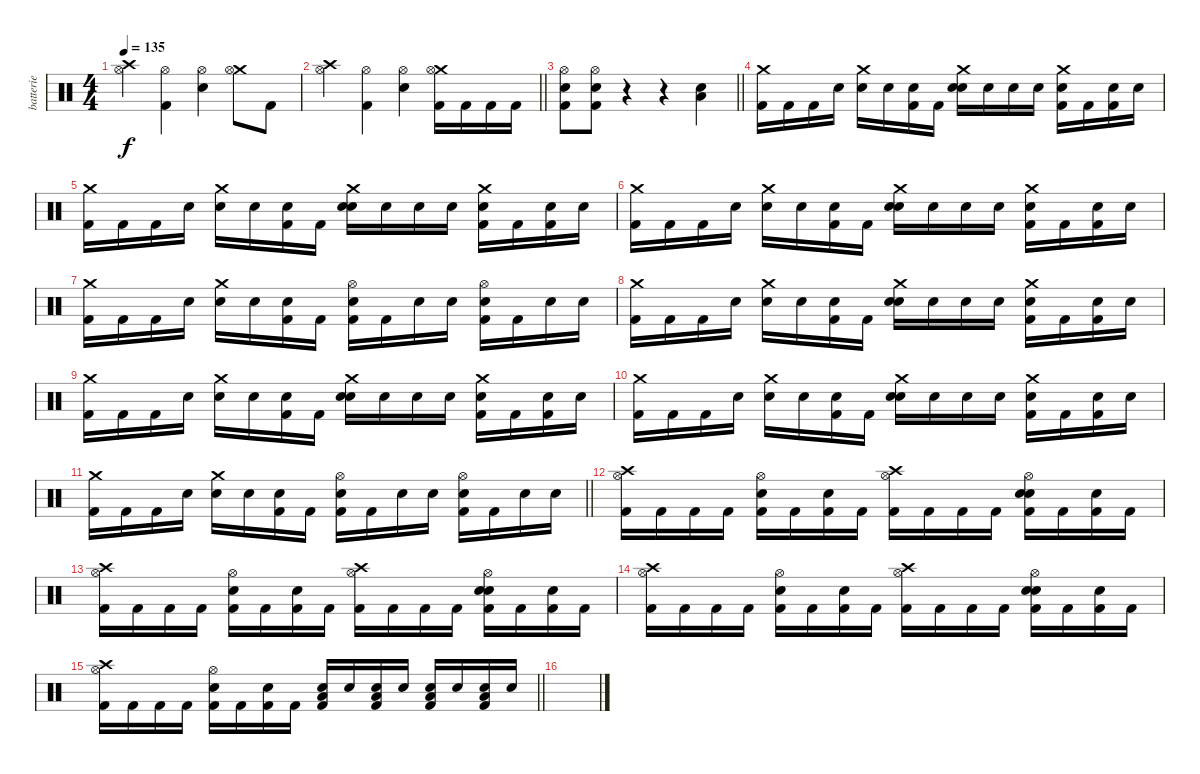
\track ("batterie" "batterie") {instrument percussion}
\staff {score}
\articulation defaults
\ts (4 4)
\tempo 135
\clef neutral
\ks c
("Crash high (hit)" "Hi-Hat (open)").4{dy f} ("Hi-Hat (open)" "Kick (hit) 2").4 ("Snare (hit) 2" "Hi-Hat (open)").4 ("Crash medium (hit)" "Hi-Hat (open)").8 "Kick (hit) 2".8 |
\barLineRight lightlight
("Crash high (hit)" "Hi-Hat (open)").4 ("Hi-Hat (open)" "Kick (hit) 2").4 ("Snare (hit) 2" "Hi-Hat (open)").4 ("Crash medium (hit)" "Hi-Hat (open)" "Kick (hit) 2").16 "Kick (hit) 2".16 "Kick (hit) 2".16 "Kick (hit) 2".16 |
\section ("" "")
\barLineRight lightlight
("Electric Snare (hit)" "Hi-Hat (open)" "Kick (hit) 2").8 ("Electric Snare (hit)" "Hi-Hat (open)" "Kick (hit) 2").8 r.4 r.4 ("Electric Snare (hit)" "Low Floor Tom (hit)").4 |
("Crash medium (hit)" "Kick (hit) 2").16 "Kick (hit) 2".16 "Kick (hit) 2".16 "Snare (hit)".16 ("Crash medium (hit)" "Snare (hit)").16 "Snare (hit)".16 ("Snare (hit)" "Kick (hit) 2").16 "Kick (hit) 2".16 ("Snare (hit) 2" "Crash medium (hit)" "Snare (hit)").16 "Snare (hit)".16 "Snare (hit)".16 "Snare (hit)".16 ("Snare (hit)" "Crash medium (hit)" "Kick (hit) 2").16 "Kick (hit) 2".16 ("Snare (hit)" "Kick (hit) 2").16 "Snare (hit)".16 |
("Crash medium (hit)" "Kick (hit) 2").16 "Kick (hit) 2".16 "Kick (hit) 2".16 "Snare (hit)".16 ("Crash medium (hit)" "Snare (hit)").16 "Snare (hit)".16 ("Snare (hit)" "Kick (hit) 2").16 "Kick (hit) 2".16 ("Snare (hit) 2" "Crash medium (hit)" "Snare (hit)").16 "Snare (hit)".16 "Snare (hit)".16 "Snare (hit)".16 ("Snare (hit)" "Crash medium (hit)" "Kick (hit) 2").16 "Kick (hit) 2".16 ("Snare (hit)" "Kick (hit) 2").16 "Snare (hit)".16 |
("Crash medium (hit)" "Kick (hit) 2").16 "Kick (hit) 2".16 "Kick (hit) 2".16 "Snare (hit)".16 ("Crash medium (hit)" "Snare (hit)").16 "Snare (hit)".16 ("Snare (hit)" "Kick (hit) 2").16 "Kick (hit) 2".16 ("Snare (hit) 2" "Crash medium (hit)" "Snare (hit)").16 "Snare (hit)".16 "Snare (hit)".16 "Snare (hit)".16 ("Snare (hit)" "Crash medium (hit)" "Kick (hit) 2").16 "Kick (hit) 2".16 ("Snare (hit)" "Kick (hit) 2").16 "Snare (hit)".16 |
("Crash medium (hit)" "Kick (hit) 2").16 "Kick (hit) 2".16 "Kick (hit) 2".16 "Snare (hit)".16 ("Crash medium (hit)" "Snare (hit)").16 "Snare (hit)".16 ("Snare (hit)" "Kick (hit) 2").16 "Kick (hit) 2".16 ("Snare (hit)" "Hi-Hat (open)" "Kick (hit) 2").16 "Kick (hit) 2".16 "Snare (hit)".16 "Snare (hit)".16 ("Snare (hit) 2" "Hi-Hat (open)" "Kick (hit) 2").16 "Kick (hit) 2".16 "Snare (hit)".16 "Snare (hit)".16 |
("Crash medium (hit)" "Kick (hit) 2").16 "Kick (hit) 2".16 "Kick (hit) 2".16 "Snare (hit)".16 ("Crash medium (hit)" "Snare (hit)").16 "Snare (hit)".16 ("Snare (hit)" "Kick (hit) 2").16 "Kick (hit) 2".16 ("Snare (hit) 2" "Crash medium (hit)" "Snare (hit)").16 "Snare (hit)".16 "Snare (hit)".16 "Snare (hit)".16 ("Snare (hit)" "Crash medium (hit)" "Kick (hit) 2").16 "Kick (hit) 2".16 ("Snare (hit)" "Kick (hit) 2").16 "Snare (hit)".16 |
("Crash medium (hit)" "Kick (hit) 2").16 "Kick (hit) 2".16 "Kick (hit) 2".16 "Snare (hit)".16 ("Crash medium (hit)" "Snare (hit)").16 "Snare (hit)".16 ("Snare (hit)" "Kick (hit) 2").16 "Kick (hit) 2".16 ("Snare (hit) 2" "Crash medium (hit)" "Snare (hit)").16 "Snare (hit)".16 "Snare (hit)".16 "Snare (hit)".16 ("Snare (hit)" "Crash medium (hit)" "Kick (hit) 2").16 "Kick (hit) 2".16 ("Snare (hit)" "Kick (hit) 2").16 "Snare (hit)".16 |
("Crash medium (hit)" "Kick (hit) 2").16 "Kick (hit) 2".16 "Kick (hit) 2".16 "Snare (hit)".16 ("Crash medium (hit)" "Snare (hit)").16 "Snare (hit)".16 ("Snare (hit)" "Kick (hit) 2").16 "Kick (hit) 2".16 ("Snare (hit) 2" "Crash medium (hit)" "Snare (hit)").16 "Snare (hit)".16 "Snare (hit)".16 "Snare (hit)".16 ("Snare (hit)" "Crash medium (hit)" "Kick (hit) 2").16 "Kick (hit) 2".16 ("Snare (hit)" "Kick (hit) 2").16 "Snare (hit)".16 |
\barLineRight lightlight
("Crash medium (hit)" "Kick (hit) 2").16 "Kick (hit) 2".16 "Kick (hit) 2".16 "Snare (hit)".16 ("Crash medium (hit)" "Snare (hit)").16 "Snare (hit)".16 ("Snare (hit)" "Kick (hit) 2").16 "Kick (hit) 2".16 ("Snare (hit)" "Hi-Hat (open)" "Kick (hit) 2").16 "Kick (hit) 2".16 "Snare (hit)".16 "Snare (hit)".16 ("Snare (hit) 2" "Hi-Hat (open)" "Kick (hit) 2").16 "Kick (hit) 2".16 "Snare (hit)".16 "Snare (hit)".16 |
("Hi-Hat (open)" "Crash high (hit)" "Kick (hit) 2").16 "Kick (hit) 2".16 "Kick (hit) 2".16 "Kick (hit) 2".16 ("Hi-Hat (open)" "Snare (hit) 2" "Kick (hit) 2").16 "Kick (hit) 2".16 ("Snare (hit)" "Kick (hit) 2").16 "Kick (hit) 2".16 ("Hi-Hat (open)" "Crash high (hit)" "Kick (hit) 2").16 "Kick (hit) 2".16 "Kick (hit) 2".16 "Kick (hit) 2".16 ("Snare (hit)" "Hi-Hat (open)" "Snare (hit) 2" "Kick (hit) 2").16 "Kick (hit) 2".16 ("Snare (hit)" "Kick (hit) 2").16 "Kick (hit) 2".16 |
("Hi-Hat (open)" "Crash high (hit)" "Kick (hit) 2").16 "Kick (hit) 2".16 "Kick (hit) 2".16 "Kick (hit) 2".16 ("Hi-Hat (open)" "Snare (hit) 2" "Kick (hit) 2").16 "Kick (hit) 2".16 ("Snare (hit)" "Kick (hit) 2").16 "Kick (hit) 2".16 ("Hi-Hat (open)" "Crash high (hit)" "Kick (hit) 2").16 "Kick (hit) 2".16 "Kick (hit) 2".16 "Kick (hit) 2".16 ("Snare (hit)" "Hi-Hat (open)" "Snare (hit) 2" "Kick (hit) 2").16 "Kick (hit) 2".16 ("Snare (hit)" "Kick (hit) 2").16 "Kick (hit) 2".16 |
("Hi-Hat (open)" "Crash high (hit)" "Kick (hit) 2").16 "Kick (hit) 2".16 "Kick (hit) 2".16 "Kick (hit) 2".16 ("Hi-Hat (open)" "Snare (hit) 2" "Kick (hit) 2").16 "Kick (hit) 2".16 ("Snare (hit)" "Kick (hit) 2").16 "Kick (hit) 2".16 ("Hi-Hat (open)" "Crash high (hit)" "Kick (hit) 2").16 "Kick (hit) 2".16 "Kick (hit) 2".16 "Kick (hit) 2".16 ("Snare (hit)" "Hi-Hat (open)" "Snare (hit) 2" "Kick (hit) 2").16 "Kick (hit) 2".16 ("Snare (hit)" "Kick (hit) 2").16 "Kick (hit) 2".16 |
\barLineRight lightlight
("Hi-Hat (open)" "Crash high (hit)" "Kick (hit) 2").16 "Kick (hit) 2".16 "Kick (hit) 2".16 "Kick (hit) 2".16 ("Hi-Hat (open)" "Snare (hit) 2" "Kick (hit) 2").16 "Kick (hit) 2".16 ("Snare (hit)" "Kick (hit) 2").16 "Kick (hit) 2".16 ("Electric Snare (hit)" "Low Floor Tom (hit)" "Kick (hit) 2").16 "Snare (hit)".16 ("Electric Snare (hit)" "Low Floor Tom (hit)" "Kick (hit) 2").16 "Snare (hit)".16 ("Electric Snare (hit)" "Low Floor Tom (hit)" "Kick (hit) 2").16 "Snare (hit)".16 ("Electric Snare (hit)" "Low Floor Tom (hit)" "Kick (hit) 2").16 "Snare (hit)".16 |
\section ("" "")
